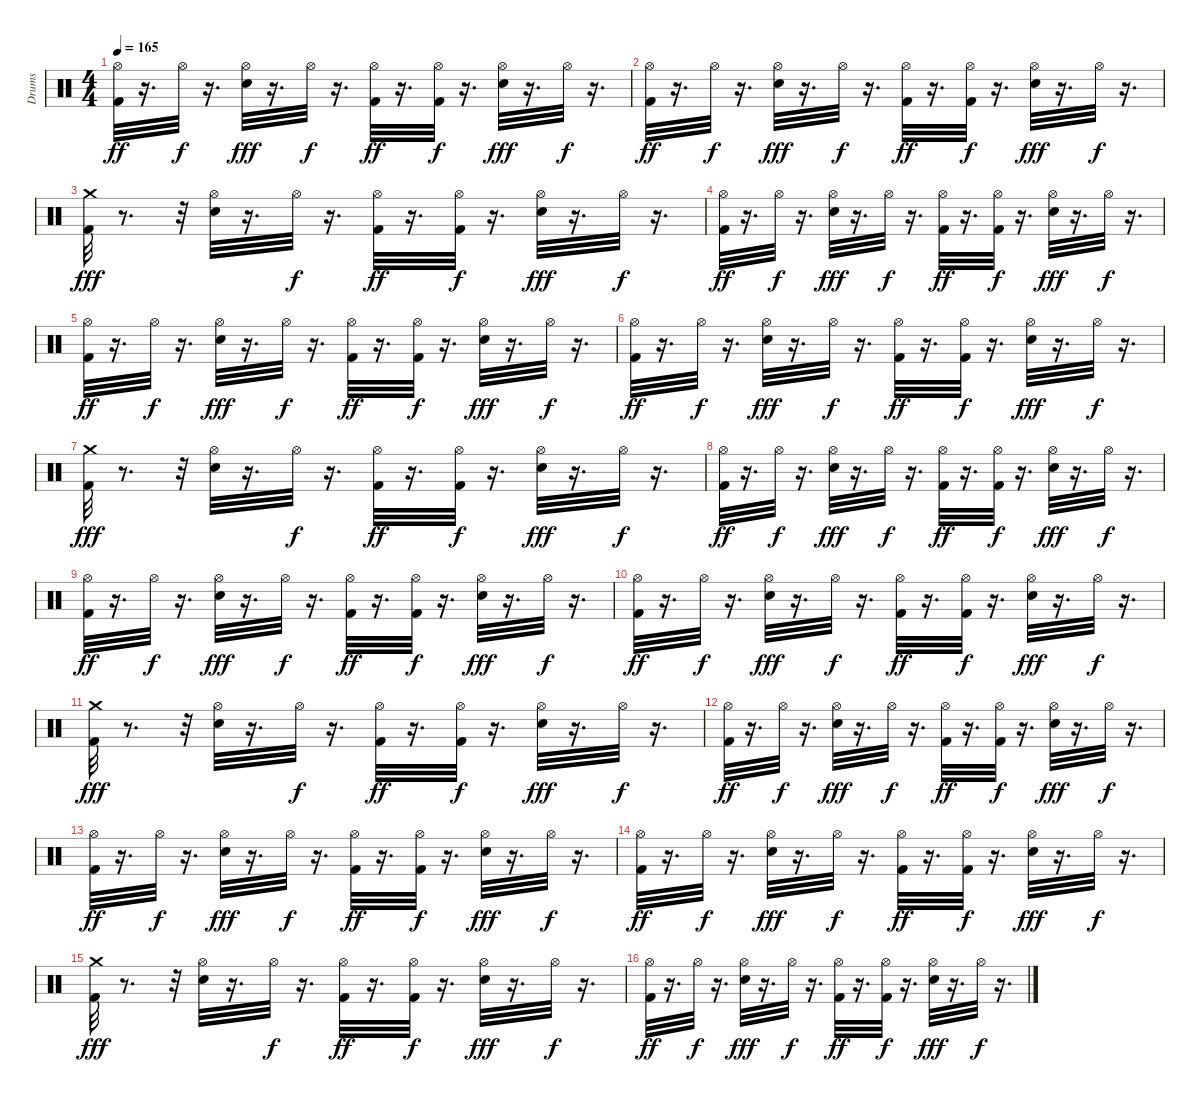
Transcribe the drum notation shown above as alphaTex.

\track ("Drums" "Drums") {instrument percussion}
\staff {score}
\articulation defaults
\ts (4 4)
\tempo 165
\clef neutral
\ks c
("Kick (hit) 2" "Hi-Hat (open)").32{dy ff} r.16{d} "Hi-Hat (open)".32{dy f} r.16{d} ("Snare (hit) 2" "Hi-Hat (open)").32{dy fff} r.16{d} "Hi-Hat (open)".32{dy f} r.16{d} ("Kick (hit) 2" "Hi-Hat (open)").32{dy ff} r.16{d} ("Kick (hit) 2" "Hi-Hat (open)").32{dy f} r.16{d} ("Snare (hit) 2" "Hi-Hat (open)").32{dy fff} r.16{d} "Hi-Hat (open)".32{dy f} r.16{d} |
("Kick (hit) 2" "Hi-Hat (open)").32{dy ff} r.16{d} "Hi-Hat (open)".32{dy f} r.16{d} ("Snare (hit) 2" "Hi-Hat (open)").32{dy fff} r.16{d} "Hi-Hat (open)".32{dy f} r.16{d} ("Kick (hit) 2" "Hi-Hat (open)").32{dy ff} r.16{d} ("Kick (hit) 2" "Hi-Hat (open)").32{dy f} r.16{d} ("Snare (hit) 2" "Hi-Hat (open)").32{dy fff} r.16{d} "Hi-Hat (open)".32{dy f} r.16{d} |
("Kick (hit) 2" "Crash medium (hit)").32{dy fff} r.8{d} r.32 ("Snare (hit) 2" "Hi-Hat (open)").32 r.16{d} "Hi-Hat (open)".32{dy f} r.16{d} ("Kick (hit) 2" "Hi-Hat (open)").32{dy ff} r.16{d} ("Kick (hit) 2" "Hi-Hat (open)").32{dy f} r.16{d} ("Snare (hit) 2" "Hi-Hat (open)").32{dy fff} r.16{d} "Hi-Hat (open)".32{dy f} r.16{d} |
("Kick (hit) 2" "Hi-Hat (open)").32{dy ff} r.16{d} "Hi-Hat (open)".32{dy f} r.16{d} ("Snare (hit) 2" "Hi-Hat (open)").32{dy fff} r.16{d} "Hi-Hat (open)".32{dy f} r.16{d} ("Kick (hit) 2" "Hi-Hat (open)").32{dy ff} r.16{d} ("Kick (hit) 2" "Hi-Hat (open)").32{dy f} r.16{d} ("Snare (hit) 2" "Hi-Hat (open)").32{dy fff} r.16{d} "Hi-Hat (open)".32{dy f} r.16{d} |
("Kick (hit) 2" "Hi-Hat (open)").32{dy ff} r.16{d} "Hi-Hat (open)".32{dy f} r.16{d} ("Snare (hit) 2" "Hi-Hat (open)").32{dy fff} r.16{d} "Hi-Hat (open)".32{dy f} r.16{d} ("Kick (hit) 2" "Hi-Hat (open)").32{dy ff} r.16{d} ("Kick (hit) 2" "Hi-Hat (open)").32{dy f} r.16{d} ("Snare (hit) 2" "Hi-Hat (open)").32{dy fff} r.16{d} "Hi-Hat (open)".32{dy f} r.16{d} |
("Kick (hit) 2" "Hi-Hat (open)").32{dy ff} r.16{d} "Hi-Hat (open)".32{dy f} r.16{d} ("Snare (hit) 2" "Hi-Hat (open)").32{dy fff} r.16{d} "Hi-Hat (open)".32{dy f} r.16{d} ("Kick (hit) 2" "Hi-Hat (open)").32{dy ff} r.16{d} ("Kick (hit) 2" "Hi-Hat (open)").32{dy f} r.16{d} ("Snare (hit) 2" "Hi-Hat (open)").32{dy fff} r.16{d} "Hi-Hat (open)".32{dy f} r.16{d} |
("Kick (hit) 2" "Crash medium (hit)").32{dy fff} r.8{d} r.32 ("Snare (hit) 2" "Hi-Hat (open)").32 r.16{d} "Hi-Hat (open)".32{dy f} r.16{d} ("Kick (hit) 2" "Hi-Hat (open)").32{dy ff} r.16{d} ("Kick (hit) 2" "Hi-Hat (open)").32{dy f} r.16{d} ("Snare (hit) 2" "Hi-Hat (open)").32{dy fff} r.16{d} "Hi-Hat (open)".32{dy f} r.16{d} |
("Kick (hit) 2" "Hi-Hat (open)").32{dy ff} r.16{d} "Hi-Hat (open)".32{dy f} r.16{d} ("Snare (hit) 2" "Hi-Hat (open)").32{dy fff} r.16{d} "Hi-Hat (open)".32{dy f} r.16{d} ("Kick (hit) 2" "Hi-Hat (open)").32{dy ff} r.16{d} ("Kick (hit) 2" "Hi-Hat (open)").32{dy f} r.16{d} ("Snare (hit) 2" "Hi-Hat (open)").32{dy fff} r.16{d} "Hi-Hat (open)".32{dy f} r.16{d} |
("Kick (hit) 2" "Hi-Hat (open)").32{dy ff} r.16{d} "Hi-Hat (open)".32{dy f} r.16{d} ("Snare (hit) 2" "Hi-Hat (open)").32{dy fff} r.16{d} "Hi-Hat (open)".32{dy f} r.16{d} ("Kick (hit) 2" "Hi-Hat (open)").32{dy ff} r.16{d} ("Kick (hit) 2" "Hi-Hat (open)").32{dy f} r.16{d} ("Snare (hit) 2" "Hi-Hat (open)").32{dy fff} r.16{d} "Hi-Hat (open)".32{dy f} r.16{d} |
("Kick (hit) 2" "Hi-Hat (open)").32{dy ff} r.16{d} "Hi-Hat (open)".32{dy f} r.16{d} ("Snare (hit) 2" "Hi-Hat (open)").32{dy fff} r.16{d} "Hi-Hat (open)".32{dy f} r.16{d} ("Kick (hit) 2" "Hi-Hat (open)").32{dy ff} r.16{d} ("Kick (hit) 2" "Hi-Hat (open)").32{dy f} r.16{d} ("Snare (hit) 2" "Hi-Hat (open)").32{dy fff} r.16{d} "Hi-Hat (open)".32{dy f} r.16{d} |
("Kick (hit) 2" "Crash medium (hit)").32{dy fff} r.8{d} r.32 ("Snare (hit) 2" "Hi-Hat (open)").32 r.16{d} "Hi-Hat (open)".32{dy f} r.16{d} ("Kick (hit) 2" "Hi-Hat (open)").32{dy ff} r.16{d} ("Kick (hit) 2" "Hi-Hat (open)").32{dy f} r.16{d} ("Snare (hit) 2" "Hi-Hat (open)").32{dy fff} r.16{d} "Hi-Hat (open)".32{dy f} r.16{d} |
("Kick (hit) 2" "Hi-Hat (open)").32{dy ff} r.16{d} "Hi-Hat (open)".32{dy f} r.16{d} ("Snare (hit) 2" "Hi-Hat (open)").32{dy fff} r.16{d} "Hi-Hat (open)".32{dy f} r.16{d} ("Kick (hit) 2" "Hi-Hat (open)").32{dy ff} r.16{d} ("Kick (hit) 2" "Hi-Hat (open)").32{dy f} r.16{d} ("Snare (hit) 2" "Hi-Hat (open)").32{dy fff} r.16{d} "Hi-Hat (open)".32{dy f} r.16{d} |
("Kick (hit) 2" "Hi-Hat (open)").32{dy ff} r.16{d} "Hi-Hat (open)".32{dy f} r.16{d} ("Snare (hit) 2" "Hi-Hat (open)").32{dy fff} r.16{d} "Hi-Hat (open)".32{dy f} r.16{d} ("Kick (hit) 2" "Hi-Hat (open)").32{dy ff} r.16{d} ("Kick (hit) 2" "Hi-Hat (open)").32{dy f} r.16{d} ("Snare (hit) 2" "Hi-Hat (open)").32{dy fff} r.16{d} "Hi-Hat (open)".32{dy f} r.16{d} |
("Kick (hit) 2" "Hi-Hat (open)").32{dy ff} r.16{d} "Hi-Hat (open)".32{dy f} r.16{d} ("Snare (hit) 2" "Hi-Hat (open)").32{dy fff} r.16{d} "Hi-Hat (open)".32{dy f} r.16{d} ("Kick (hit) 2" "Hi-Hat (open)").32{dy ff} r.16{d} ("Kick (hit) 2" "Hi-Hat (open)").32{dy f} r.16{d} ("Snare (hit) 2" "Hi-Hat (open)").32{dy fff} r.16{d} "Hi-Hat (open)".32{dy f} r.16{d} |
("Kick (hit) 2" "Crash medium (hit)").32{dy fff} r.8{d} r.32 ("Snare (hit) 2" "Hi-Hat (open)").32 r.16{d} "Hi-Hat (open)".32{dy f} r.16{d} ("Kick (hit) 2" "Hi-Hat (open)").32{dy ff} r.16{d} ("Kick (hit) 2" "Hi-Hat (open)").32{dy f} r.16{d} ("Snare (hit) 2" "Hi-Hat (open)").32{dy fff} r.16{d} "Hi-Hat (open)".32{dy f} r.16{d} |
("Kick (hit) 2" "Hi-Hat (open)").32{dy ff} r.16{d} "Hi-Hat (open)".32{dy f} r.16{d} ("Snare (hit) 2" "Hi-Hat (open)").32{dy fff} r.16{d} "Hi-Hat (open)".32{dy f} r.16{d} ("Kick (hit) 2" "Hi-Hat (open)").32{dy ff} r.16{d} ("Kick (hit) 2" "Hi-Hat (open)").32{dy f} r.16{d} ("Snare (hit) 2" "Hi-Hat (open)").32{dy fff} r.16{d} "Hi-Hat (open)".32{dy f} r.16{d}
